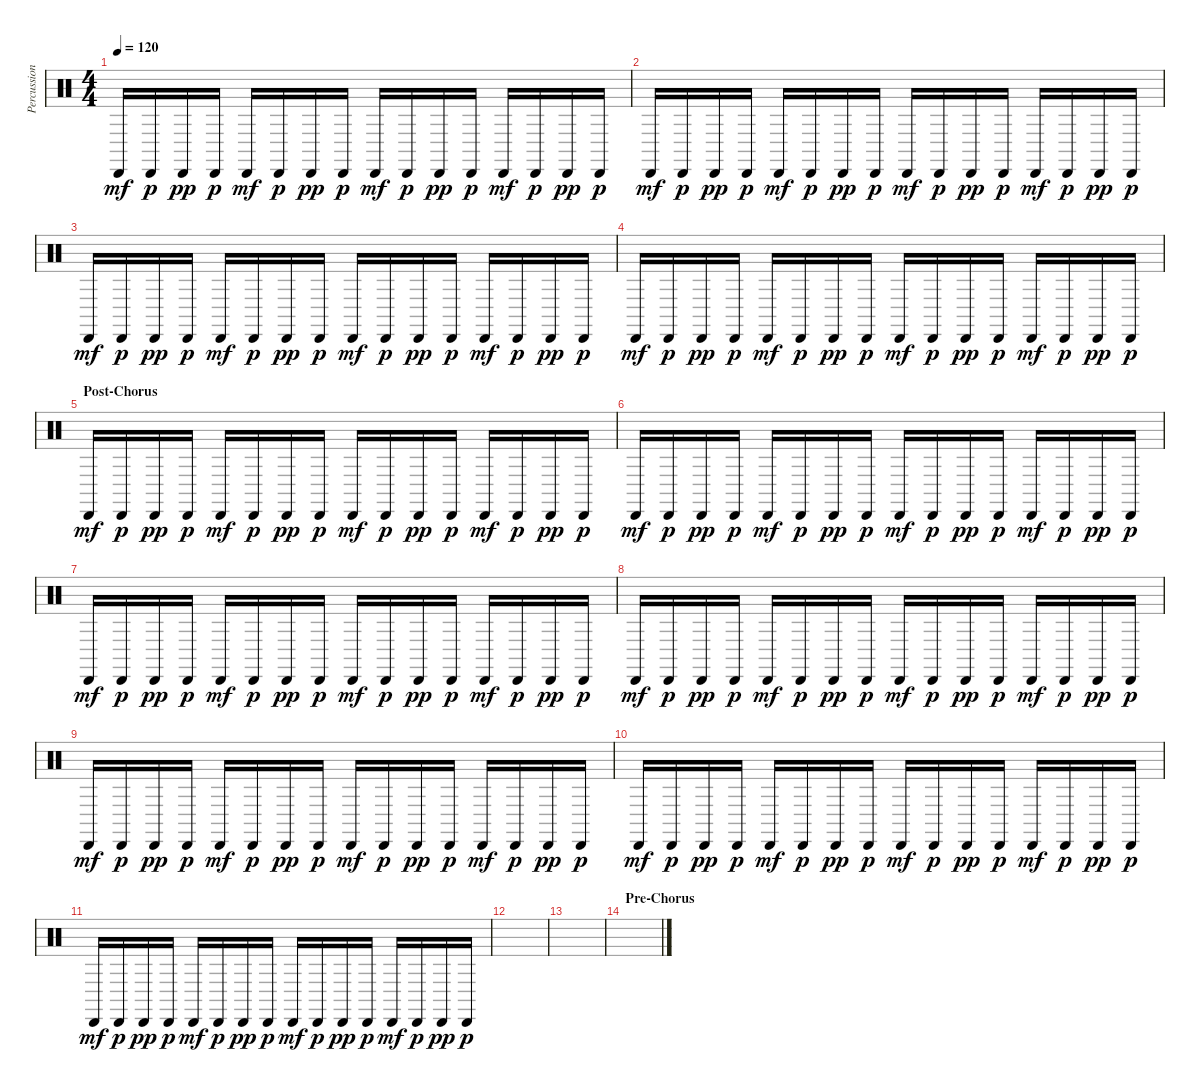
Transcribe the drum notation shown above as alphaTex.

\track ("Percussion" "Percussion") {instrument percussion}
\staff {score}
\articulation defaults
\ts (4 4)
\tempo 120
\clef neutral
\ks c "Cabasa (hit)".16{dy mf} "Cabasa (hit)".16{dy p} "Cabasa (hit)".16{dy pp} "Cabasa (hit)".16{dy p} "Cabasa (hit)".16{dy mf} "Cabasa (hit)".16{dy p} "Cabasa (hit)".16{dy pp} "Cabasa (hit)".16{dy p} "Cabasa (hit)".16{dy mf} "Cabasa (hit)".16{dy p} "Cabasa (hit)".16{dy pp} "Cabasa (hit)".16{dy p} "Cabasa (hit)".16{dy mf} "Cabasa (hit)".16{dy p} "Cabasa (hit)".16{dy pp} "Cabasa (hit)".16{dy p}
|
"Cabasa (hit)".16{dy mf} "Cabasa (hit)".16{dy p} "Cabasa (hit)".16{dy pp} "Cabasa (hit)".16{dy p} "Cabasa (hit)".16{dy mf} "Cabasa (hit)".16{dy p} "Cabasa (hit)".16{dy pp} "Cabasa (hit)".16{dy p} "Cabasa (hit)".16{dy mf} "Cabasa (hit)".16{dy p} "Cabasa (hit)".16{dy pp} "Cabasa (hit)".16{dy p} "Cabasa (hit)".16{dy mf} "Cabasa (hit)".16{dy p} "Cabasa (hit)".16{dy pp} "Cabasa (hit)".16{dy p} |
"Cabasa (hit)".16{dy mf} "Cabasa (hit)".16{dy p} "Cabasa (hit)".16{dy pp} "Cabasa (hit)".16{dy p} "Cabasa (hit)".16{dy mf} "Cabasa (hit)".16{dy p} "Cabasa (hit)".16{dy pp} "Cabasa (hit)".16{dy p} "Cabasa (hit)".16{dy mf} "Cabasa (hit)".16{dy p} "Cabasa (hit)".16{dy pp} "Cabasa (hit)".16{dy p} "Cabasa (hit)".16{dy mf} "Cabasa (hit)".16{dy p} "Cabasa (hit)".16{dy pp} "Cabasa (hit)".16{dy p} |
"Cabasa (hit)".16{dy mf} "Cabasa (hit)".16{dy p} "Cabasa (hit)".16{dy pp} "Cabasa (hit)".16{dy p} "Cabasa (hit)".16{dy mf} "Cabasa (hit)".16{dy p} "Cabasa (hit)".16{dy pp} "Cabasa (hit)".16{dy p} "Cabasa (hit)".16{dy mf} "Cabasa (hit)".16{dy p} "Cabasa (hit)".16{dy pp} "Cabasa (hit)".16{dy p} "Cabasa (hit)".16{dy mf} "Cabasa (hit)".16{dy p} "Cabasa (hit)".16{dy pp} "Cabasa (hit)".16{dy p} |
\section ("" "Post-Chorus")
"Cabasa (hit)".16{dy mf} "Cabasa (hit)".16{dy p} "Cabasa (hit)".16{dy pp} "Cabasa (hit)".16{dy p} "Cabasa (hit)".16{dy mf} "Cabasa (hit)".16{dy p} "Cabasa (hit)".16{dy pp} "Cabasa (hit)".16{dy p} "Cabasa (hit)".16{dy mf} "Cabasa (hit)".16{dy p} "Cabasa (hit)".16{dy pp} "Cabasa (hit)".16{dy p} "Cabasa (hit)".16{dy mf} "Cabasa (hit)".16{dy p} "Cabasa (hit)".16{dy pp} "Cabasa (hit)".16{dy p} |
"Cabasa (hit)".16{dy mf} "Cabasa (hit)".16{dy p} "Cabasa (hit)".16{dy pp} "Cabasa (hit)".16{dy p} "Cabasa (hit)".16{dy mf} "Cabasa (hit)".16{dy p} "Cabasa (hit)".16{dy pp} "Cabasa (hit)".16{dy p} "Cabasa (hit)".16{dy mf} "Cabasa (hit)".16{dy p} "Cabasa (hit)".16{dy pp} "Cabasa (hit)".16{dy p} "Cabasa (hit)".16{dy mf} "Cabasa (hit)".16{dy p} "Cabasa (hit)".16{dy pp} "Cabasa (hit)".16{dy p} |
"Cabasa (hit)".16{dy mf} "Cabasa (hit)".16{dy p} "Cabasa (hit)".16{dy pp} "Cabasa (hit)".16{dy p} "Cabasa (hit)".16{dy mf} "Cabasa (hit)".16{dy p} "Cabasa (hit)".16{dy pp} "Cabasa (hit)".16{dy p} "Cabasa (hit)".16{dy mf} "Cabasa (hit)".16{dy p} "Cabasa (hit)".16{dy pp} "Cabasa (hit)".16{dy p} "Cabasa (hit)".16{dy mf} "Cabasa (hit)".16{dy p} "Cabasa (hit)".16{dy pp} "Cabasa (hit)".16{dy p} |
"Cabasa (hit)".16{dy mf} "Cabasa (hit)".16{dy p} "Cabasa (hit)".16{dy pp} "Cabasa (hit)".16{dy p} "Cabasa (hit)".16{dy mf} "Cabasa (hit)".16{dy p} "Cabasa (hit)".16{dy pp} "Cabasa (hit)".16{dy p} "Cabasa (hit)".16{dy mf} "Cabasa (hit)".16{dy p} "Cabasa (hit)".16{dy pp} "Cabasa (hit)".16{dy p} "Cabasa (hit)".16{dy mf} "Cabasa (hit)".16{dy p} "Cabasa (hit)".16{dy pp} "Cabasa (hit)".16{dy p} |
"Cabasa (hit)".16{dy mf} "Cabasa (hit)".16{dy p} "Cabasa (hit)".16{dy pp} "Cabasa (hit)".16{dy p} "Cabasa (hit)".16{dy mf} "Cabasa (hit)".16{dy p} "Cabasa (hit)".16{dy pp} "Cabasa (hit)".16{dy p} "Cabasa (hit)".16{dy mf} "Cabasa (hit)".16{dy p} "Cabasa (hit)".16{dy pp} "Cabasa (hit)".16{dy p} "Cabasa (hit)".16{dy mf} "Cabasa (hit)".16{dy p} "Cabasa (hit)".16{dy pp} "Cabasa (hit)".16{dy p} |
"Cabasa (hit)".16{dy mf} "Cabasa (hit)".16{dy p} "Cabasa (hit)".16{dy pp} "Cabasa (hit)".16{dy p} "Cabasa (hit)".16{dy mf} "Cabasa (hit)".16{dy p} "Cabasa (hit)".16{dy pp} "Cabasa (hit)".16{dy p} "Cabasa (hit)".16{dy mf} "Cabasa (hit)".16{dy p} "Cabasa (hit)".16{dy pp} "Cabasa (hit)".16{dy p} "Cabasa (hit)".16{dy mf} "Cabasa (hit)".16{dy p} "Cabasa (hit)".16{dy pp} "Cabasa (hit)".16{dy p} |
"Cabasa (hit)".16{dy mf} "Cabasa (hit)".16{dy p} "Cabasa (hit)".16{dy pp} "Cabasa (hit)".16{dy p} "Cabasa (hit)".16{dy mf} "Cabasa (hit)".16{dy p} "Cabasa (hit)".16{dy pp} "Cabasa (hit)".16{dy p} "Cabasa (hit)".16{dy mf} "Cabasa (hit)".16{dy p} "Cabasa (hit)".16{dy pp} "Cabasa (hit)".16{dy p} "Cabasa (hit)".16{dy mf} "Cabasa (hit)".16{dy p} "Cabasa (hit)".16{dy pp} "Cabasa (hit)".16{dy p} |
|
|
\section ("" "Pre-Chorus")
